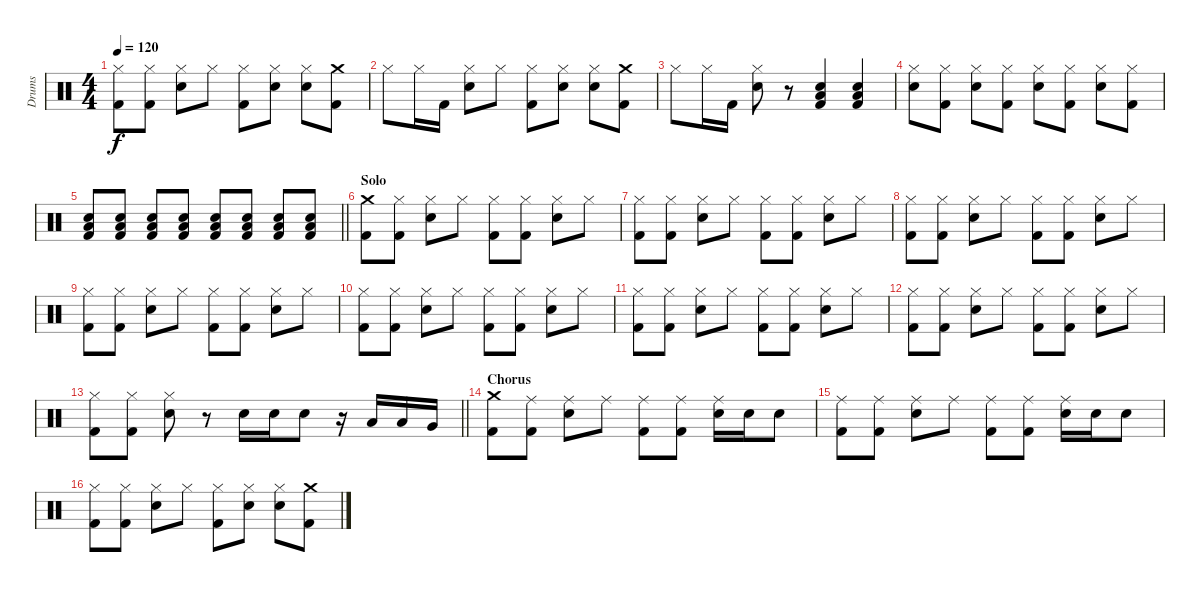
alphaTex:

\track ("Drums" "Drums") {instrument percussion}
\staff {score}
\articulation defaults
\ts (4 4)
\tempo 120
\clef neutral
\ks c
("Hi-Hat (closed)" "Kick (hit) 2").8{dy f} ("Hi-Hat (closed)" "Kick (hit) 2").8 ("Hi-Hat (closed)" "Electric Snare (hit)").8 "Hi-Hat (closed)".8 ("Hi-Hat (closed)" "Kick (hit) 2").8 ("Hi-Hat (closed)" "Electric Snare (hit)").8 ("Hi-Hat (closed)" "Electric Snare (hit)").8 ("Crash medium (hit)" "Kick (hit) 2").8 |
"Hi-Hat (closed)".8 "Hi-Hat (closed)".16 "Kick (hit) 2".16 ("Hi-Hat (closed)" "Electric Snare (hit)").8 "Hi-Hat (closed)".8 ("Hi-Hat (closed)" "Kick (hit) 2").8 ("Hi-Hat (closed)" "Electric Snare (hit)").8 ("Hi-Hat (closed)" "Electric Snare (hit)").8 ("Crash medium (hit)" "Kick (hit) 2").8 |
"Hi-Hat (closed)".8 "Hi-Hat (closed)".16 "Kick (hit) 2".16 ("Hi-Hat (closed)" "Electric Snare (hit)").8 r.8 ("Electric Snare (hit)" "Low Tom (hit)" "Kick (hit) 2").4 ("Electric Snare (hit)" "Low Tom (hit)" "Kick (hit) 2").4 |
("Hi-Hat (closed)" "Electric Snare (hit)").8 ("Hi-Hat (closed)" "Kick (hit) 2").8 ("Hi-Hat (closed)" "Electric Snare (hit)").8 ("Hi-Hat (closed)" "Kick (hit) 2").8 ("Hi-Hat (closed)" "Electric Snare (hit)").8 ("Hi-Hat (closed)" "Kick (hit) 2").8 ("Hi-Hat (closed)" "Electric Snare (hit)").8 ("Hi-Hat (closed)" "Kick (hit) 2").8 |
\barLineRight lightlight
("Electric Snare (hit)" "Low Tom (hit)" "Kick (hit) 2").8 ("Electric Snare (hit)" "Low Tom (hit)" "Kick (hit) 2").8 ("Electric Snare (hit)" "Low Tom (hit)" "Kick (hit) 2").8 ("Electric Snare (hit)" "Low Tom (hit)" "Kick (hit) 2").8 ("Electric Snare (hit)" "Low Tom (hit)" "Kick (hit) 2").8 ("Electric Snare (hit)" "Low Tom (hit)" "Kick (hit) 2").8 ("Electric Snare (hit)" "Low Tom (hit)" "Kick (hit) 2").8 ("Electric Snare (hit)" "Low Tom (hit)" "Kick (hit) 2").8 |
\section ("" "Solo")
("Crash medium (hit)" "Kick (hit) 2").8 ("Hi-Hat (closed)" "Kick (hit) 2").8 ("Hi-Hat (closed)" "Electric Snare (hit)").8 "Hi-Hat (closed)".8 ("Hi-Hat (closed)" "Kick (hit) 2").8 ("Hi-Hat (closed)" "Kick (hit) 2").8 ("Hi-Hat (closed)" "Electric Snare (hit)").8 "Hi-Hat (closed)".8 |
("Hi-Hat (closed)" "Kick (hit) 2").8 ("Hi-Hat (closed)" "Kick (hit) 2").8 ("Hi-Hat (closed)" "Electric Snare (hit)").8 "Hi-Hat (closed)".8 ("Hi-Hat (closed)" "Kick (hit) 2").8 ("Hi-Hat (closed)" "Kick (hit) 2").8 ("Hi-Hat (closed)" "Electric Snare (hit)").8 "Hi-Hat (closed)".8 |
("Hi-Hat (closed)" "Kick (hit) 2").8 ("Hi-Hat (closed)" "Kick (hit) 2").8 ("Hi-Hat (closed)" "Electric Snare (hit)").8 "Hi-Hat (closed)".8 ("Hi-Hat (closed)" "Kick (hit) 2").8 ("Hi-Hat (closed)" "Kick (hit) 2").8 ("Hi-Hat (closed)" "Electric Snare (hit)").8 "Hi-Hat (closed)".8 |
("Hi-Hat (closed)" "Kick (hit) 2").8 ("Hi-Hat (closed)" "Kick (hit) 2").8 ("Hi-Hat (closed)" "Electric Snare (hit)").8 "Hi-Hat (closed)".8 ("Hi-Hat (closed)" "Kick (hit) 2").8 ("Hi-Hat (closed)" "Kick (hit) 2").8 ("Hi-Hat (closed)" "Electric Snare (hit)").8 "Hi-Hat (closed)".8 |
("Hi-Hat (closed)" "Kick (hit) 2").8 ("Hi-Hat (closed)" "Kick (hit) 2").8 ("Hi-Hat (closed)" "Electric Snare (hit)").8 "Hi-Hat (closed)".8 ("Hi-Hat (closed)" "Kick (hit) 2").8 ("Hi-Hat (closed)" "Kick (hit) 2").8 ("Hi-Hat (closed)" "Electric Snare (hit)").8 "Hi-Hat (closed)".8 |
("Hi-Hat (closed)" "Kick (hit) 2").8 ("Hi-Hat (closed)" "Kick (hit) 2").8 ("Hi-Hat (closed)" "Electric Snare (hit)").8 "Hi-Hat (closed)".8 ("Hi-Hat (closed)" "Kick (hit) 2").8 ("Hi-Hat (closed)" "Kick (hit) 2").8 ("Hi-Hat (closed)" "Electric Snare (hit)").8 "Hi-Hat (closed)".8 |
("Hi-Hat (closed)" "Kick (hit) 2").8 ("Hi-Hat (closed)" "Kick (hit) 2").8 ("Hi-Hat (closed)" "Electric Snare (hit)").8 "Hi-Hat (closed)".8 ("Hi-Hat (closed)" "Kick (hit) 2").8 ("Hi-Hat (closed)" "Kick (hit) 2").8 ("Hi-Hat (closed)" "Electric Snare (hit)").8 "Hi-Hat (closed)".8 |
\barLineRight lightlight
("Hi-Hat (closed)" "Kick (hit) 2").8 ("Hi-Hat (closed)" "Kick (hit) 2").8 ("Hi-Hat (closed)" "Electric Snare (hit)").8 r.8 "Electric Snare (hit)".16 "Electric Snare (hit)".16 "Electric Snare (hit)".8 r.16 "Low Tom (hit)".16 "Low Tom (hit)".16 "Very Low Tom (hit)".16 |
\section ("" "Chorus")
("Crash medium (hit)" "Kick (hit) 2").8 ("Ride (middle)" "Kick (hit) 2").8 ("Ride (middle)" "Electric Snare (hit)").8 "Ride (middle)".8 ("Ride (middle)" "Kick (hit) 2").8 ("Ride (middle)" "Kick (hit) 2").8 ("Ride (middle)" "Electric Snare (hit)").16 "Electric Snare (hit)".16 "Electric Snare (hit)".8 |
("Ride (middle)" "Kick (hit) 2").8 ("Ride (middle)" "Kick (hit) 2").8 ("Ride (middle)" "Electric Snare (hit)").8 "Ride (middle)".8 ("Ride (middle)" "Kick (hit) 2").8 ("Ride (middle)" "Kick (hit) 2").8 ("Ride (middle)" "Electric Snare (hit)").16 "Electric Snare (hit)".16 "Electric Snare (hit)".8 |
("Hi-Hat (closed)" "Kick (hit) 2").8 ("Hi-Hat (closed)" "Kick (hit) 2").8 ("Hi-Hat (closed)" "Electric Snare (hit)").8 "Hi-Hat (closed)".8 ("Hi-Hat (closed)" "Kick (hit) 2").8 ("Hi-Hat (closed)" "Electric Snare (hit)").8 ("Hi-Hat (closed)" "Electric Snare (hit)").8 ("Crash medium (hit)" "Kick (hit) 2").8
